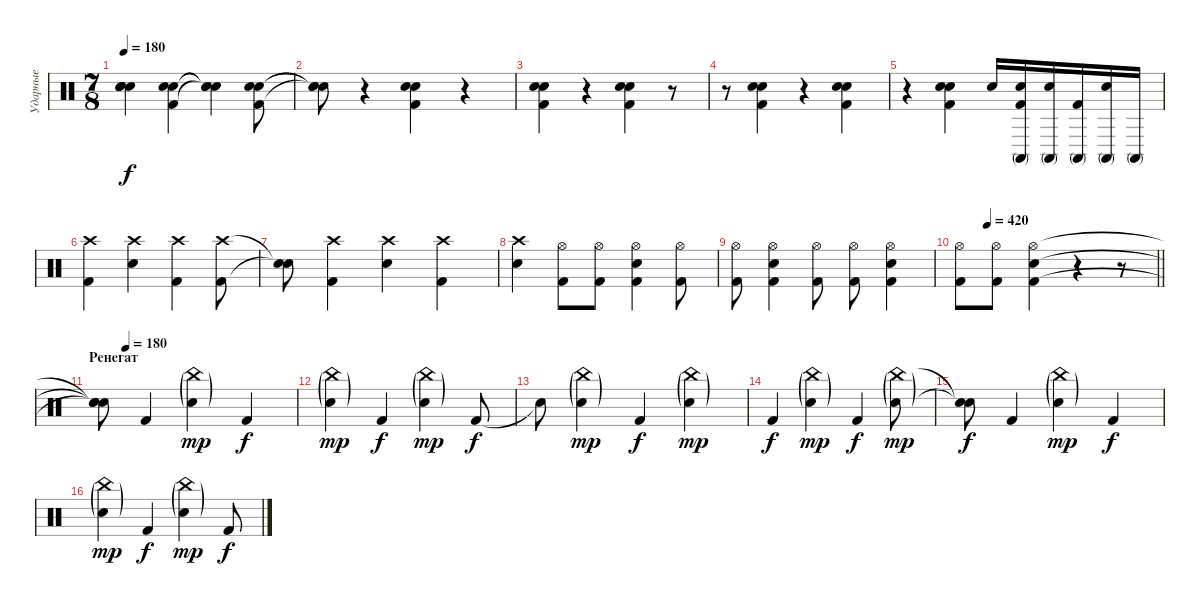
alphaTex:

\track ("Ударные" "Ударные") {instrument percussion}
\staff {score}
\articulation defaults
\ts (7 8)
\tempo 180
\clef neutral
\ks c
("Snare (hit)"{t} "Snare (hit)"{t} "Snare (hit)" "Snare (hit)").4{dy f} ("Kick (hit) 2" "Snare (hit) 2" "Electric Snare (hit)").4 ("Snare (hit)"{t} "Snare (hit)"{t} "Snare (hit)"{t}).4 ("Kick (hit) 2" "Snare (hit) 2" "Electric Snare (hit)").8 |
("Snare (hit)"{t} "Snare (hit)"{t} "Snare (hit)"{t}).8 r.4 ("Kick (hit) 2" "Snare (hit) 2" "Electric Snare (hit)").4 r.4 |
("Kick (hit) 2" "Snare (hit) 2" "Electric Snare (hit)").4 r.4 ("Kick (hit) 2" "Snare (hit) 2" "Electric Snare (hit)").4 r.8 |
r.8 ("Kick (hit) 2" "Snare (hit) 2" "Electric Snare (hit)").4 r.4 ("Kick (hit) 2" "Snare (hit) 2" "Electric Snare (hit)").4 |
r.4 ("Kick (hit) 2" "Snare (hit) 2" "Electric Snare (hit)").4 "Electric Snare (hit)".16 ("Electric Snare (hit)" "Conga high (mute)" "Kick (hit) 2").16 ("Electric Snare (hit)" "Conga high (mute)").16 ("Conga high (mute)" "Kick (hit) 2").16 ("Electric Snare (hit)" "Conga high (mute)").16 "Conga high (mute)".16 |
("Crash high (hit)" "Kick (hit) 2").4 ("Crash high (hit)" "Snare (hit) 2").4 ("Crash high (hit)" "Kick (hit) 2").4 ("Crash high (hit)" "Kick (hit) 2").8 |
("Snare (hit)"{t} "Snare (hit)"{t}).8 ("Crash high (hit)" "Kick (hit) 2").4 ("Crash high (hit)" "Snare (hit) 2").4 ("Crash high (hit)" "Kick (hit) 2").4 |
("Crash high (hit)" "Snare (hit) 2").4 ("Hi-Hat (open)" "Kick (hit) 2").8 ("Hi-Hat (open)" "Kick (hit) 2").8 ("Kick (hit) 2" "Electric Snare (hit)" "Hi-Hat (open)").4 ("Hi-Hat (open)" "Kick (hit) 2").8 |
("Hi-Hat (open)" "Kick (hit) 2").8 ("Kick (hit) 2" "Hi-Hat (open)" "Electric Snare (hit)").4 ("Hi-Hat (open)" "Kick (hit) 2").8 ("Hi-Hat (open)" "Kick (hit) 2").8 ("Kick (hit) 2" "Hi-Hat (open)" "Electric Snare (hit)").4 |
\tempo (420 0.14285714285714285)
\barLineRight lightlight
("Hi-Hat (open)" "Kick (hit) 2").8 ("Hi-Hat (open)" "Kick (hit) 2").8 ("Kick (hit) 2" "Hi-Hat (open)" "Electric Snare (hit)").4 r.4 r.8 |
\section ("" "Ренегат")
\tempo (180 0.14285714285714285)
("Snare (hit)"{t} "Snare (hit)"{t} "Snare (hit)"{t}).8 "Kick (hit) 2".4 ("China (hit)"{g} "Snare (hit) 2"{g}).4{dy mp} "Kick (hit) 2".4{dy f} |
("China (hit)"{g} "Snare (hit) 2"{g}).4{dy mp} "Kick (hit) 2".4{dy f} ("China (hit)"{g} "Snare (hit) 2"{g}).4{dy mp} "Kick (hit) 2".8{dy f} |
"Snare (hit)"{t}.8 ("China (hit)"{g} "Snare (hit) 2"{g}).4{dy mp} "Kick (hit) 2".4{dy f} ("China (hit)"{g} "Snare (hit) 2"{g}).4{dy mp} |
"Kick (hit) 2".4{dy f} ("China (hit)"{g} "Snare (hit) 2"{g}).4{dy mp} "Kick (hit) 2".4{dy f} ("China (hit)"{g} "Snare (hit) 2"{g}).8{dy mp} |
("Snare (hit)"{t} "Snare (hit)"{t}).8{dy f} "Kick (hit) 2".4 ("China (hit)"{g} "Snare (hit) 2"{g}).4{dy mp} "Kick (hit) 2".4{dy f} |
("China (hit)"{g} "Snare (hit) 2"{g}).4{dy mp} "Kick (hit) 2".4{dy f} ("China (hit)"{g} "Snare (hit) 2"{g}).4{dy mp} "Kick (hit) 2".8{dy f}
